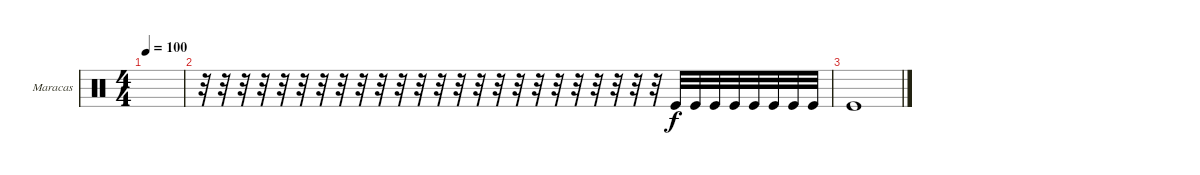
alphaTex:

\defaultSystemsLayout 4
\bracketExtendMode groupsimilarinstruments
\firstSystemTrackNameOrientation horizontal
\otherSystemsTrackNameOrientation horizontal
\track ("Maracas" "Maracas") {instrument percussion}
\staff {score}
\articulation defaults
\ts (4 4)
\tempo 100
\clef neutral
\ks c
|
r.32 r.32 r.32 r.32 r.32 r.32 r.32 r.32 r.32 r.32 r.32 r.32 r.32 r.32 r.32 r.32 r.32 r.32 r.32 r.32 r.32 r.32 r.32 r.32 "Kick (hit)".32{dy f} "Kick (hit)".32 "Kick (hit)".32 "Kick (hit)".32 "Kick (hit)".32 "Kick (hit)".32 "Kick (hit)".32 "Kick (hit)".32 |
"Kick (hit)".1
